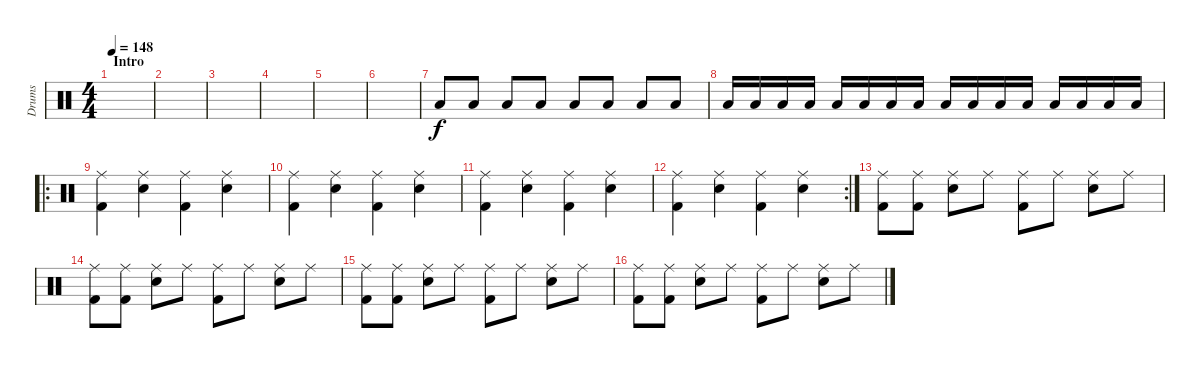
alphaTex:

\track ("Drums" "Drums") {instrument percussion}
\staff {score}
\articulation defaults
\ts (4 4)
\section ("" "Intro")
\tempo 148
\clef neutral
\ks c
|
|
|
|
|
|
"Low Tom (hit)".8 "Low Tom (hit)".8 "Low Tom (hit)".8 "Low Tom (hit)".8 "Low Tom (hit)".8 "Low Tom (hit)".8 "Low Tom (hit)".8 "Low Tom (hit)".8 |
"Low Tom (hit)".16 "Low Tom (hit)".16 "Low Tom (hit)".16 "Low Tom (hit)".16 "Low Tom (hit)".16 "Low Tom (hit)".16 "Low Tom (hit)".16 "Low Tom (hit)".16 "Low Tom (hit)".16 "Low Tom (hit)".16 "Low Tom (hit)".16 "Low Tom (hit)".16 "Low Tom (hit)".16 "Low Tom (hit)".16 "Low Tom (hit)".16 "Low Tom (hit)".16 |
\ro
("Ride (middle)" "Kick (hit) 2").4 ("Ride (middle)" "Snare (hit) 2").4 ("Ride (middle)" "Kick (hit) 2").4 ("Ride (middle)" "Snare (hit) 2").4 |
("Ride (middle)" "Kick (hit) 2").4 ("Ride (middle)" "Snare (hit) 2").4 ("Ride (middle)" "Kick (hit) 2").4 ("Ride (middle)" "Snare (hit) 2").4 |
("Ride (middle)" "Kick (hit) 2").4 ("Ride (middle)" "Snare (hit) 2").4 ("Ride (middle)" "Kick (hit) 2").4 ("Ride (middle)" "Snare (hit) 2").4 |
\rc 2
("Ride (middle)" "Kick (hit) 2").4 ("Ride (middle)" "Snare (hit) 2").4 ("Ride (middle)" "Kick (hit) 2").4 ("Ride (middle)" "Snare (hit) 2").4 |
("Ride (middle)" "Kick (hit) 2").8 ("Ride (middle)" "Kick (hit) 2").8 ("Ride (middle)" "Snare (hit) 2").8 "Ride (middle)".8 ("Ride (middle)" "Kick (hit) 2").8 "Ride (middle)".8 ("Ride (middle)" "Snare (hit) 2").8 "Ride (middle)".8 |
("Ride (middle)" "Kick (hit) 2").8 ("Ride (middle)" "Kick (hit) 2").8 ("Ride (middle)" "Snare (hit) 2").8 "Ride (middle)".8 ("Ride (middle)" "Kick (hit) 2").8 "Ride (middle)".8 ("Ride (middle)" "Snare (hit) 2").8 "Ride (middle)".8 |
("Ride (middle)" "Kick (hit) 2").8 ("Ride (middle)" "Kick (hit) 2").8 ("Ride (middle)" "Snare (hit) 2").8 "Ride (middle)".8 ("Ride (middle)" "Kick (hit) 2").8 "Ride (middle)".8 ("Ride (middle)" "Snare (hit) 2").8 "Ride (middle)".8 |
("Ride (middle)" "Kick (hit) 2").8 ("Ride (middle)" "Kick (hit) 2").8 ("Ride (middle)" "Snare (hit) 2").8 "Ride (middle)".8 ("Ride (middle)" "Kick (hit) 2").8 "Ride (middle)".8 ("Ride (middle)" "Snare (hit) 2").8 "Ride (middle)".8
